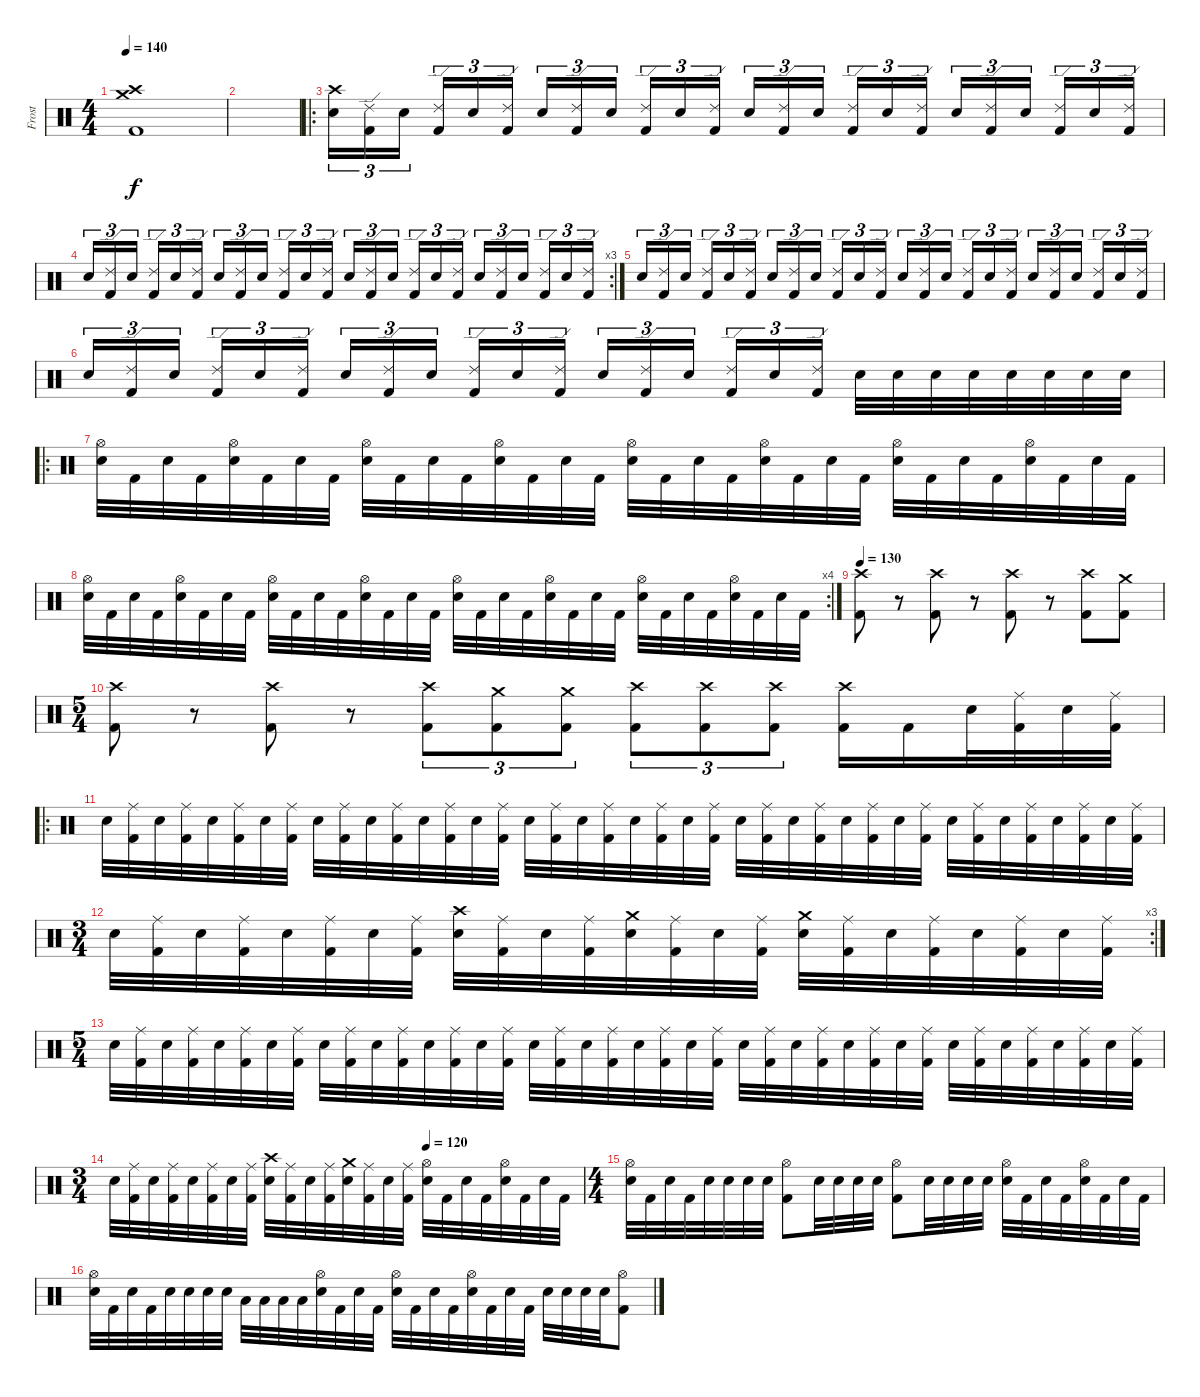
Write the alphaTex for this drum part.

\track ("Frost" "Frost") {instrument percussion}
\staff {score}
\articulation defaults
\ts (4 4)
\tempo 140
\clef neutral
\ks c
("Crash medium (hit)" "Crash high (hit)" "Kick (hit) 2").1{dy f} |
|
\ro
("Crash high (hit)" "Snare (hit) 2").16{tu (3 2)} ("Ride (edge) 2" "Kick (hit) 2").16{tu (3 2)} "Snare (hit) 2".16{tu (3 2) beam splitsecondary} ("Ride (edge) 2" "Kick (hit) 2").16{tu (3 2)} "Snare (hit) 2".16{tu (3 2)} ("Ride (edge) 2" "Kick (hit) 2").16{tu (3 2)} "Snare (hit) 2".16{tu (3 2)} ("Ride (edge) 2" "Kick (hit) 2").16{tu (3 2)} "Snare (hit) 2".16{tu (3 2) beam splitsecondary} ("Ride (edge) 2" "Kick (hit) 2").16{tu (3 2)} "Snare (hit) 2".16{tu (3 2)} ("Ride (edge) 2" "Kick (hit) 2").16{tu (3 2)} "Snare (hit) 2".16{tu (3 2)} ("Ride (edge) 2" "Kick (hit) 2").16{tu (3 2)} "Snare (hit) 2".16{tu (3 2) beam splitsecondary} ("Ride (edge) 2" "Kick (hit) 2").16{tu (3 2)} "Snare (hit) 2".16{tu (3 2)} ("Ride (edge) 2" "Kick (hit) 2").16{tu (3 2)} "Snare (hit) 2".16{tu (3 2)} ("Ride (edge) 2" "Kick (hit) 2").16{tu (3 2)} "Snare (hit) 2".16{tu (3 2) beam splitsecondary} ("Ride (edge) 2" "Kick (hit) 2").16{tu (3 2)} "Snare (hit) 2".16{tu (3 2)} ("Ride (edge) 2" "Kick (hit) 2").16{tu (3 2)} |
\rc 3 "Snare (hit) 2".16{tu (3 2)}
("Ride (edge) 2" "Kick (hit) 2").16{tu (3 2)} "Snare (hit) 2".16{tu (3 2) beam splitsecondary} ("Ride (edge) 2" "Kick (hit) 2").16{tu (3 2)} "Snare (hit) 2".16{tu (3 2)} ("Ride (edge) 2" "Kick (hit) 2").16{tu (3 2)} "Snare (hit) 2".16{tu (3 2)} ("Ride (edge) 2" "Kick (hit) 2").16{tu (3 2)} "Snare (hit) 2".16{tu (3 2) beam splitsecondary} ("Ride (edge) 2" "Kick (hit) 2").16{tu (3 2)} "Snare (hit) 2".16{tu (3 2)} ("Ride (edge) 2" "Kick (hit) 2").16{tu (3 2)} "Snare (hit) 2".16{tu (3 2)} ("Ride (edge) 2" "Kick (hit) 2").16{tu (3 2)} "Snare (hit) 2".16{tu (3 2) beam splitsecondary} ("Ride (edge) 2" "Kick (hit) 2").16{tu (3 2)} "Snare (hit) 2".16{tu (3 2)} ("Ride (edge) 2" "Kick (hit) 2").16{tu (3 2)} "Snare (hit) 2".16{tu (3 2)} ("Ride (edge) 2" "Kick (hit) 2").16{tu (3 2)} "Snare (hit) 2".16{tu (3 2) beam splitsecondary} ("Ride (edge) 2" "Kick (hit) 2").16{tu (3 2)} "Snare (hit) 2".16{tu (3 2)} ("Ride (edge) 2" "Kick (hit) 2").16{tu (3 2)} |
"Snare (hit) 2".16{tu (3 2)} ("Ride (edge) 2" "Kick (hit) 2").16{tu (3 2)} "Snare (hit) 2".16{tu (3 2) beam splitsecondary} ("Ride (edge) 2" "Kick (hit) 2").16{tu (3 2)} "Snare (hit) 2".16{tu (3 2)} ("Ride (edge) 2" "Kick (hit) 2").16{tu (3 2)} "Snare (hit) 2".16{tu (3 2)} ("Ride (edge) 2" "Kick (hit) 2").16{tu (3 2)} "Snare (hit) 2".16{tu (3 2) beam splitsecondary} ("Ride (edge) 2" "Kick (hit) 2").16{tu (3 2)} "Snare (hit) 2".16{tu (3 2)} ("Ride (edge) 2" "Kick (hit) 2").16{tu (3 2)} "Snare (hit) 2".16{tu (3 2)} ("Ride (edge) 2" "Kick (hit) 2").16{tu (3 2)} "Snare (hit) 2".16{tu (3 2) beam splitsecondary} ("Ride (edge) 2" "Kick (hit) 2").16{tu (3 2)} "Snare (hit) 2".16{tu (3 2)} ("Ride (edge) 2" "Kick (hit) 2").16{tu (3 2)} "Snare (hit) 2".16{tu (3 2)} ("Ride (edge) 2" "Kick (hit) 2").16{tu (3 2)} "Snare (hit) 2".16{tu (3 2) beam splitsecondary} ("Ride (edge) 2" "Kick (hit) 2").16{tu (3 2)} "Snare (hit) 2".16{tu (3 2)} ("Ride (edge) 2" "Kick (hit) 2").16{tu (3 2)} |
"Snare (hit) 2".16{tu (3 2)} ("Ride (edge) 2" "Kick (hit) 2").16{tu (3 2)} "Snare (hit) 2".16{tu (3 2) beam splitsecondary} ("Ride (edge) 2" "Kick (hit) 2").16{tu (3 2)} "Snare (hit) 2".16{tu (3 2)} ("Ride (edge) 2" "Kick (hit) 2").16{tu (3 2)} "Snare (hit) 2".16{tu (3 2)} ("Ride (edge) 2" "Kick (hit) 2").16{tu (3 2)} "Snare (hit) 2".16{tu (3 2) beam splitsecondary} ("Ride (edge) 2" "Kick (hit) 2").16{tu (3 2)} "Snare (hit) 2".16{tu (3 2)} ("Ride (edge) 2" "Kick (hit) 2").16{tu (3 2)} "Snare (hit) 2".16{tu (3 2)} ("Ride (edge) 2" "Kick (hit) 2").16{tu (3 2)} "Snare (hit) 2".16{tu (3 2) beam splitsecondary} ("Ride (edge) 2" "Kick (hit) 2").16{tu (3 2)} "Snare (hit) 2".16{tu (3 2)} ("Ride (edge) 2" "Kick (hit) 2").16{tu (3 2)} "Snare (hit) 2".32 "Snare (hit) 2".32 "Snare (hit) 2".32 "Snare (hit) 2".32 "Snare (hit) 2".32 "Snare (hit) 2".32 "Snare (hit) 2".32 "Snare (hit) 2".32 |
\ro
("Hi-Hat (open)" "Snare (hit) 2").32 "Kick (hit) 2".32 "Snare (hit) 2".32 "Kick (hit) 2".32 ("Hi-Hat (open)" "Snare (hit) 2").32 "Kick (hit) 2".32 "Snare (hit) 2".32 "Kick (hit) 2".32 ("Hi-Hat (open)" "Snare (hit) 2").32 "Kick (hit) 2".32 "Snare (hit) 2".32 "Kick (hit) 2".32 ("Hi-Hat (open)" "Snare (hit) 2").32 "Kick (hit) 2".32 "Snare (hit) 2".32 "Kick (hit) 2".32 ("Hi-Hat (open)" "Snare (hit) 2").32 "Kick (hit) 2".32 "Snare (hit) 2".32 "Kick (hit) 2".32 ("Hi-Hat (open)" "Snare (hit) 2").32 "Kick (hit) 2".32 "Snare (hit) 2".32 "Kick (hit) 2".32 ("Hi-Hat (open)" "Snare (hit) 2").32 "Kick (hit) 2".32 "Snare (hit) 2".32 "Kick (hit) 2".32 ("Hi-Hat (open)" "Snare (hit) 2").32 "Kick (hit) 2".32 "Snare (hit) 2".32 "Kick (hit) 2".32 |
\rc 4
("Hi-Hat (open)" "Snare (hit) 2").32 "Kick (hit) 2".32 "Snare (hit) 2".32 "Kick (hit) 2".32 ("Hi-Hat (open)" "Snare (hit) 2").32 "Kick (hit) 2".32 "Snare (hit) 2".32 "Kick (hit) 2".32 ("Hi-Hat (open)" "Snare (hit) 2").32 "Kick (hit) 2".32 "Snare (hit) 2".32 "Kick (hit) 2".32 ("Hi-Hat (open)" "Snare (hit) 2").32 "Kick (hit) 2".32 "Snare (hit) 2".32 "Kick (hit) 2".32 ("Hi-Hat (open)" "Snare (hit) 2").32 "Kick (hit) 2".32 "Snare (hit) 2".32 "Kick (hit) 2".32 ("Hi-Hat (open)" "Snare (hit) 2").32 "Kick (hit) 2".32 "Snare (hit) 2".32 "Kick (hit) 2".32 ("Hi-Hat (open)" "Snare (hit) 2").32 "Kick (hit) 2".32 "Snare (hit) 2".32 "Kick (hit) 2".32 ("Hi-Hat (open)" "Snare (hit) 2").32 "Kick (hit) 2".32 "Snare (hit) 2".32 "Kick (hit) 2".32 |
\tempo 130
("Crash high (hit)" "Kick (hit) 2").8 r.8 ("Crash high (hit)" "Kick (hit) 2").8 r.8 ("Crash high (hit)" "Kick (hit) 2").8 r.8 ("Crash high (hit)" "Kick (hit) 2").8 ("Crash medium (hit)" "Kick (hit) 2").8 |
\ts (5 4)
("Crash high (hit)" "Kick (hit) 2").8 r.8 ("Crash high (hit)" "Kick (hit) 2").8 r.8 ("Crash high (hit)" "Kick (hit) 2").8{tu (3 2)} ("Crash medium (hit)" "Kick (hit) 2").8{tu (3 2)} ("Crash medium (hit)" "Kick (hit) 2").8{tu (3 2)} ("Crash high (hit)" "Kick (hit) 2").8{tu (3 2)} ("Crash high (hit)" "Kick (hit) 2").8{tu (3 2)} ("Crash high (hit)" "Kick (hit) 2").8{tu (3 2)} ("Crash high (hit)" "Kick (hit) 2").16 "Kick (hit) 2".16 "Snare (hit) 2".32 ("Ride (middle)" "Kick (hit) 2").32 "Snare (hit) 2".32 ("Ride (middle)" "Kick (hit) 2").32 |
\ro "Snare (hit) 2".32
("Ride (middle)" "Kick (hit) 2").32 "Snare (hit) 2".32 ("Ride (middle)" "Kick (hit) 2").32 "Snare (hit) 2".32 ("Ride (middle)" "Kick (hit) 2").32 "Snare (hit) 2".32 ("Ride (middle)" "Kick (hit) 2").32 "Snare (hit) 2".32 ("Ride (middle)" "Kick (hit) 2").32 "Snare (hit) 2".32 ("Ride (middle)" "Kick (hit) 2").32 "Snare (hit) 2".32 ("Ride (middle)" "Kick (hit) 2").32 "Snare (hit) 2".32 ("Ride (middle)" "Kick (hit) 2").32 "Snare (hit) 2".32 ("Ride (middle)" "Kick (hit) 2").32 "Snare (hit) 2".32 ("Ride (middle)" "Kick (hit) 2").32 "Snare (hit) 2".32 ("Ride (middle)" "Kick (hit) 2").32 "Snare (hit) 2".32 ("Ride (middle)" "Kick (hit) 2").32 "Snare (hit) 2".32 ("Ride (middle)" "Kick (hit) 2").32 "Snare (hit) 2".32 ("Ride (middle)" "Kick (hit) 2").32 "Snare (hit) 2".32 ("Ride (middle)" "Kick (hit) 2").32 "Snare (hit) 2".32 ("Ride (middle)" "Kick (hit) 2").32 "Snare (hit) 2".32 ("Ride (middle)" "Kick (hit) 2").32 "Snare (hit) 2".32 ("Ride (middle)" "Kick (hit) 2").32 "Snare (hit) 2".32 ("Ride (middle)" "Kick (hit) 2").32 "Snare (hit) 2".32 ("Ride (middle)" "Kick (hit) 2").32 |
\rc 3
\ts (3 4)
"Snare (hit) 2".32 ("Ride (middle)" "Kick (hit) 2").32 "Snare (hit) 2".32 ("Ride (middle)" "Kick (hit) 2").32 "Snare (hit) 2".32 ("Ride (middle)" "Kick (hit) 2").32 "Snare (hit) 2".32 ("Ride (middle)" "Kick (hit) 2").32 ("Crash high (hit)" "Snare (hit) 2").32 ("Ride (middle)" "Kick (hit) 2").32 "Snare (hit) 2".32 ("Ride (middle)" "Kick (hit) 2").32 ("Crash medium (hit)" "Snare (hit) 2").32 ("Ride (middle)" "Kick (hit) 2").32 "Snare (hit) 2".32 ("Ride (middle)" "Kick (hit) 2").32 ("Crash medium (hit)" "Snare (hit) 2").32 ("Ride (middle)" "Kick (hit) 2").32 "Snare (hit) 2".32 ("Ride (middle)" "Kick (hit) 2").32 "Snare (hit) 2".32 ("Ride (middle)" "Kick (hit) 2").32 "Snare (hit) 2".32 ("Ride (middle)" "Kick (hit) 2").32 |
\ts (5 4)
"Snare (hit) 2".32 ("Ride (middle)" "Kick (hit) 2").32 "Snare (hit) 2".32 ("Ride (middle)" "Kick (hit) 2").32 "Snare (hit) 2".32 ("Ride (middle)" "Kick (hit) 2").32 "Snare (hit) 2".32 ("Ride (middle)" "Kick (hit) 2").32 "Snare (hit) 2".32 ("Ride (middle)" "Kick (hit) 2").32 "Snare (hit) 2".32 ("Ride (middle)" "Kick (hit) 2").32 "Snare (hit) 2".32 ("Ride (middle)" "Kick (hit) 2").32 "Snare (hit) 2".32 ("Ride (middle)" "Kick (hit) 2").32 "Snare (hit) 2".32 ("Ride (middle)" "Kick (hit) 2").32 "Snare (hit) 2".32 ("Ride (middle)" "Kick (hit) 2").32 "Snare (hit) 2".32 ("Ride (middle)" "Kick (hit) 2").32 "Snare (hit) 2".32 ("Ride (middle)" "Kick (hit) 2").32 "Snare (hit) 2".32 ("Ride (middle)" "Kick (hit) 2").32 "Snare (hit) 2".32 ("Ride (middle)" "Kick (hit) 2").32 "Snare (hit) 2".32 ("Ride (middle)" "Kick (hit) 2").32 "Snare (hit) 2".32 ("Ride (middle)" "Kick (hit) 2").32 "Snare (hit) 2".32 ("Ride (middle)" "Kick (hit) 2").32 "Snare (hit) 2".32 ("Ride (middle)" "Kick (hit) 2").32 "Snare (hit) 2".32 ("Ride (middle)" "Kick (hit) 2").32 "Snare (hit) 2".32 ("Ride (middle)" "Kick (hit) 2").32 |
\ts (3 4)
\tempo (120 0.6666666666666666)
"Snare (hit) 2".32 ("Ride (middle)" "Kick (hit) 2").32 "Snare (hit) 2".32 ("Ride (middle)" "Kick (hit) 2").32 "Snare (hit) 2".32 ("Ride (middle)" "Kick (hit) 2").32 "Snare (hit) 2".32 ("Ride (middle)" "Kick (hit) 2").32 ("Crash high (hit)" "Snare (hit) 2").32 ("Ride (middle)" "Kick (hit) 2").32 "Snare (hit) 2".32 ("Ride (middle)" "Kick (hit) 2").32 ("Crash medium (hit)" "Snare (hit) 2").32 ("Ride (middle)" "Kick (hit) 2").32 "Snare (hit) 2".32 ("Ride (middle)" "Kick (hit) 2").32 ("Hi-Hat (open)" "Snare (hit) 2").32 "Kick (hit) 2".32 "Snare (hit) 2".32 "Kick (hit) 2".32 ("Hi-Hat (open)" "Snare (hit) 2").32 "Kick (hit) 2".32 "Snare (hit) 2".32 "Kick (hit) 2".32 |
\ts (4 4)
("Hi-Hat (open)" "Snare (hit) 2").32 "Kick (hit) 2".32 "Snare (hit) 2".32 "Kick (hit) 2".32 "Snare (hit) 2".32 "Snare (hit) 2".32 "Snare (hit) 2".32 "Snare (hit) 2".32 ("Hi-Hat (open)" "Kick (hit) 2").8 "Snare (hit) 2".32 "Snare (hit) 2".32 "Snare (hit) 2".32 "Snare (hit) 2".32 ("Hi-Hat (open)" "Kick (hit) 2").8 "Snare (hit) 2".32 "Snare (hit) 2".32 "Snare (hit) 2".32 "Snare (hit) 2".32 ("Hi-Hat (open)" "Snare (hit) 2").32 "Kick (hit) 2".32 "Snare (hit) 2".32 "Kick (hit) 2".32 ("Hi-Hat (open)" "Snare (hit) 2").32 "Kick (hit) 2".32 "Snare (hit) 2".32 "Kick (hit) 2".32 |
("Hi-Hat (open)" "Snare (hit) 2").32 "Kick (hit) 2".32 "Snare (hit) 2".32 "Kick (hit) 2".32 "Snare (hit) 2".32 "Snare (hit) 2".32 "Snare (hit) 2".32 "Snare (hit) 2".32 "Low Tom (hit)".32 "Low Tom (hit)".32 "Low Tom (hit)".32 "Low Tom (hit)".32 ("Hi-Hat (open)" "Snare (hit) 2").32 "Kick (hit) 2".32 "Snare (hit) 2".32 "Kick (hit) 2".32 ("Hi-Hat (open)" "Snare (hit) 2").32 "Kick (hit) 2".32 "Snare (hit) 2".32 "Kick (hit) 2".32 ("Hi-Hat (open)" "Snare (hit) 2").32 "Kick (hit) 2".32 "Snare (hit) 2".32 "Kick (hit) 2".32 "Snare (hit) 2".32 "Snare (hit) 2".32 "Snare (hit) 2".32 "Snare (hit) 2".32 ("Hi-Hat (open)" "Kick (hit) 2").8
